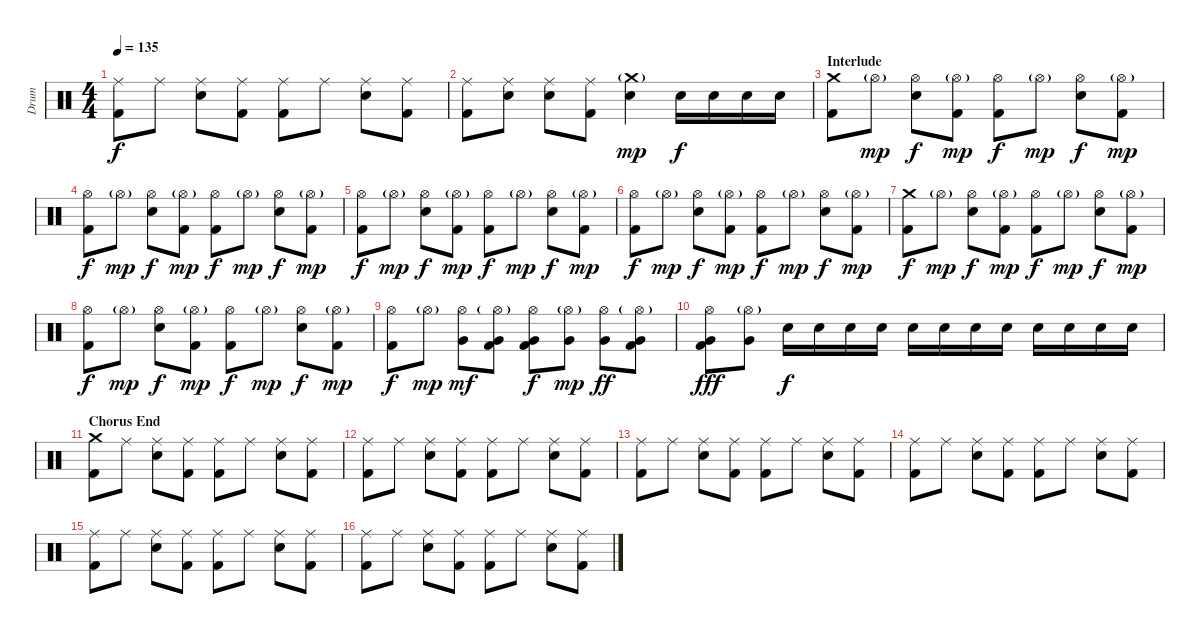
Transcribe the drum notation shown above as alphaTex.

\track ("Drum" "Drum") {instrument percussion}
\staff {score}
\articulation defaults
\ts (4 4)
\tempo 135
\clef neutral
\ks c
("Ride (middle)" "Kick (hit) 2").8{dy f} "Ride (middle)".8 ("Ride (middle)" "Snare (hit) 2").8 ("Ride (middle)" "Kick (hit) 2").8 ("Ride (middle)" "Kick (hit) 2").8 "Ride (middle)".8 ("Ride (middle)" "Snare (hit) 2").8 ("Ride (middle)" "Kick (hit) 2").8 |
("Ride (middle)" "Kick (hit) 2").8 ("Ride (middle)" "Snare (hit) 2").8 ("Ride (middle)" "Snare (hit) 2").8 ("Ride (middle)" "Kick (hit) 2").8 ("Crash medium (hit)"{g} "Snare (hit) 2").4{dy mp} "Snare (hit) 2".16{dy f} "Snare (hit) 2".16 "Snare (hit) 2".16 "Snare (hit) 2".16 |
\section ("" "Interlude")
("Crash medium (hit)" "Kick (hit) 2").8 "Hi-Hat (open)"{g}.8{dy mp} ("Hi-Hat (open)" "Snare (hit) 2").8{dy f} ("Hi-Hat (open)"{g} "Kick (hit) 2").8{dy mp} ("Hi-Hat (open)" "Kick (hit) 2").8{dy f} "Hi-Hat (open)"{g}.8{dy mp} ("Hi-Hat (open)" "Snare (hit) 2").8{dy f} ("Hi-Hat (open)"{g} "Kick (hit) 2").8{dy mp} |
("Hi-Hat (open)" "Kick (hit) 2").8{dy f} "Hi-Hat (open)"{g}.8{dy mp} ("Hi-Hat (open)" "Snare (hit) 2").8{dy f} ("Hi-Hat (open)"{g} "Kick (hit) 2").8{dy mp} ("Hi-Hat (open)" "Kick (hit) 2").8{dy f} "Hi-Hat (open)"{g}.8{dy mp} ("Hi-Hat (open)" "Snare (hit) 2").8{dy f} ("Hi-Hat (open)"{g} "Kick (hit) 2").8{dy mp} |
("Hi-Hat (open)" "Kick (hit) 2").8{dy f} "Hi-Hat (open)"{g}.8{dy mp} ("Hi-Hat (open)" "Snare (hit) 2").8{dy f} ("Hi-Hat (open)"{g} "Kick (hit) 2").8{dy mp} ("Hi-Hat (open)" "Kick (hit) 2").8{dy f} "Hi-Hat (open)"{g}.8{dy mp} ("Hi-Hat (open)" "Snare (hit) 2").8{dy f} ("Hi-Hat (open)"{g} "Kick (hit) 2").8{dy mp} |
("Hi-Hat (open)" "Kick (hit) 2").8{dy f} "Hi-Hat (open)"{g}.8{dy mp} ("Hi-Hat (open)" "Snare (hit) 2").8{dy f} ("Hi-Hat (open)"{g} "Kick (hit) 2").8{dy mp} ("Hi-Hat (open)" "Kick (hit) 2").8{dy f} "Hi-Hat (open)"{g}.8{dy mp} ("Hi-Hat (open)" "Snare (hit) 2").8{dy f} ("Hi-Hat (open)"{g} "Kick (hit) 2").8{dy mp} |
("Crash medium (hit)" "Kick (hit) 2").8{dy f} "Hi-Hat (open)"{g}.8{dy mp} ("Hi-Hat (open)" "Snare (hit) 2").8{dy f} ("Hi-Hat (open)"{g} "Kick (hit) 2").8{dy mp} ("Hi-Hat (open)" "Kick (hit) 2").8{dy f} "Hi-Hat (open)"{g}.8{dy mp} ("Hi-Hat (open)" "Snare (hit) 2").8{dy f} ("Hi-Hat (open)"{g} "Kick (hit) 2").8{dy mp} |
("Hi-Hat (open)" "Kick (hit) 2").8{dy f} "Hi-Hat (open)"{g}.8{dy mp} ("Hi-Hat (open)" "Snare (hit) 2").8{dy f} ("Hi-Hat (open)"{g} "Kick (hit) 2").8{dy mp} ("Hi-Hat (open)" "Kick (hit) 2").8{dy f} "Hi-Hat (open)"{g}.8{dy mp} ("Hi-Hat (open)" "Snare (hit) 2").8{dy f} ("Hi-Hat (open)"{g} "Kick (hit) 2").8{dy mp} |
("Hi-Hat (open)" "Kick (hit) 2").8{dy f} "Hi-Hat (open)"{g}.8{dy mp} ("Hi-Hat (open)" "Very Low Tom (hit)").8{dy mf} ("Hi-Hat (open)"{g} "Very Low Tom (hit)" "Kick (hit) 2").8 ("Hi-Hat (open)" "Very Low Tom (hit)" "Kick (hit) 2").8{dy f} ("Hi-Hat (open)"{g} "Very Low Tom (hit)").8{dy mp} ("Hi-Hat (open)" "Very Low Tom (hit)").8{dy ff} ("Hi-Hat (open)"{g} "Very Low Tom (hit)" "Kick (hit) 2").8 |
("Hi-Hat (open)" "Very Low Tom (hit)" "Kick (hit) 2").8{dy fff} ("Hi-Hat (open)"{g} "Very Low Tom (hit)").8 "Snare (hit) 2".16{dy f} "Snare (hit) 2".16 "Snare (hit) 2".16 "Snare (hit) 2".16 "Snare (hit) 2".16 "Snare (hit) 2".16 "Snare (hit) 2".16 "Snare (hit) 2".16 "Snare (hit) 2".16 "Snare (hit) 2".16 "Snare (hit) 2".16 "Snare (hit) 2".16 |
\section ("" "Chorus End")
("Crash medium (hit)" "Kick (hit) 2").8 "Ride (middle)".8 ("Ride (middle)" "Snare (hit) 2").8 ("Ride (middle)" "Kick (hit) 2").8 ("Ride (middle)" "Kick (hit) 2").8 "Ride (middle)".8 ("Ride (middle)" "Snare (hit) 2").8 ("Ride (middle)" "Kick (hit) 2").8 |
("Ride (middle)" "Kick (hit) 2").8 "Ride (middle)".8 ("Ride (middle)" "Snare (hit) 2").8 ("Ride (middle)" "Kick (hit) 2").8 ("Ride (middle)" "Kick (hit) 2").8 "Ride (middle)".8 ("Ride (middle)" "Snare (hit) 2").8 ("Ride (middle)" "Kick (hit) 2").8 |
("Ride (middle)" "Kick (hit) 2").8 "Ride (middle)".8 ("Ride (middle)" "Snare (hit) 2").8 ("Ride (middle)" "Kick (hit) 2").8 ("Ride (middle)" "Kick (hit) 2").8 "Ride (middle)".8 ("Ride (middle)" "Snare (hit) 2").8 ("Ride (middle)" "Kick (hit) 2").8 |
("Ride (middle)" "Kick (hit) 2").8 "Ride (middle)".8 ("Ride (middle)" "Snare (hit) 2").8 ("Ride (middle)" "Kick (hit) 2").8 ("Ride (middle)" "Kick (hit) 2").8 "Ride (middle)".8 ("Ride (middle)" "Snare (hit) 2").8 ("Ride (middle)" "Kick (hit) 2").8 |
("Ride (middle)" "Kick (hit) 2").8 "Ride (middle)".8 ("Ride (middle)" "Snare (hit) 2").8 ("Ride (middle)" "Kick (hit) 2").8 ("Ride (middle)" "Kick (hit) 2").8 "Ride (middle)".8 ("Ride (middle)" "Snare (hit) 2").8 ("Ride (middle)" "Kick (hit) 2").8 |
("Ride (middle)" "Kick (hit) 2").8 "Ride (middle)".8 ("Ride (middle)" "Snare (hit) 2").8 ("Ride (middle)" "Kick (hit) 2").8 ("Ride (middle)" "Kick (hit) 2").8 "Ride (middle)".8 ("Ride (middle)" "Snare (hit) 2").8 ("Ride (middle)" "Kick (hit) 2").8
